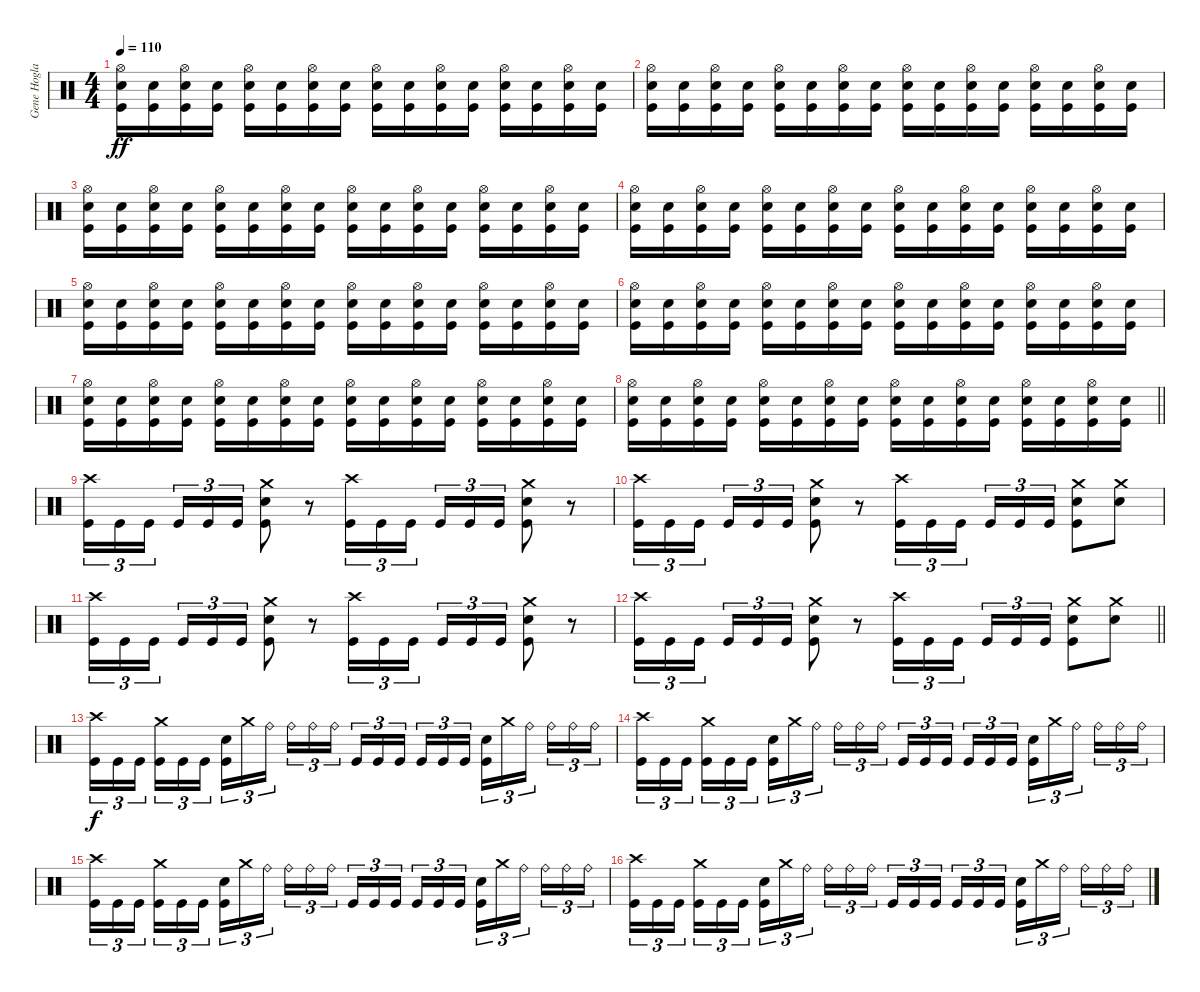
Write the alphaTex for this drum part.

\track ("Gene Hoglan" "Gene Hogla") {instrument percussion}
\staff {score}
\articulation defaults
\ts (4 4)
\section ("" "")
\tempo 110
\clef neutral
\ks c
("Hi-Hat (open)" "Electric Snare (hit)" "Kick (hit)").16{dy ff} ("Electric Snare (hit)" "Kick (hit)").16 ("Hi-Hat (open)" "Electric Snare (hit)" "Kick (hit)").16 ("Electric Snare (hit)" "Kick (hit)").16 ("Hi-Hat (open)" "Electric Snare (hit)" "Kick (hit)").16 ("Electric Snare (hit)" "Kick (hit)").16 ("Hi-Hat (open)" "Electric Snare (hit)" "Kick (hit)").16 ("Electric Snare (hit)" "Kick (hit)").16 ("Hi-Hat (open)" "Electric Snare (hit)" "Kick (hit)").16 ("Electric Snare (hit)" "Kick (hit)").16 ("Hi-Hat (open)" "Electric Snare (hit)" "Kick (hit)").16 ("Electric Snare (hit)" "Kick (hit)").16 ("Hi-Hat (open)" "Electric Snare (hit)" "Kick (hit)").16 ("Electric Snare (hit)" "Kick (hit)").16 ("Hi-Hat (open)" "Electric Snare (hit)" "Kick (hit)").16 ("Electric Snare (hit)" "Kick (hit)").16 |
("Hi-Hat (open)" "Electric Snare (hit)" "Kick (hit)").16 ("Electric Snare (hit)" "Kick (hit)").16 ("Hi-Hat (open)" "Electric Snare (hit)" "Kick (hit)").16 ("Electric Snare (hit)" "Kick (hit)").16 ("Hi-Hat (open)" "Electric Snare (hit)" "Kick (hit)").16 ("Electric Snare (hit)" "Kick (hit)").16 ("Hi-Hat (open)" "Electric Snare (hit)" "Kick (hit)").16 ("Electric Snare (hit)" "Kick (hit)").16 ("Hi-Hat (open)" "Electric Snare (hit)" "Kick (hit)").16 ("Electric Snare (hit)" "Kick (hit)").16 ("Hi-Hat (open)" "Electric Snare (hit)" "Kick (hit)").16 ("Electric Snare (hit)" "Kick (hit)").16 ("Hi-Hat (open)" "Electric Snare (hit)" "Kick (hit)").16 ("Electric Snare (hit)" "Kick (hit)").16 ("Hi-Hat (open)" "Electric Snare (hit)" "Kick (hit)").16 ("Electric Snare (hit)" "Kick (hit)").16 |
("Hi-Hat (open)" "Electric Snare (hit)" "Kick (hit)").16 ("Electric Snare (hit)" "Kick (hit)").16 ("Hi-Hat (open)" "Electric Snare (hit)" "Kick (hit)").16 ("Electric Snare (hit)" "Kick (hit)").16 ("Hi-Hat (open)" "Electric Snare (hit)" "Kick (hit)").16 ("Electric Snare (hit)" "Kick (hit)").16 ("Hi-Hat (open)" "Electric Snare (hit)" "Kick (hit)").16 ("Electric Snare (hit)" "Kick (hit)").16 ("Hi-Hat (open)" "Electric Snare (hit)" "Kick (hit)").16 ("Electric Snare (hit)" "Kick (hit)").16 ("Hi-Hat (open)" "Electric Snare (hit)" "Kick (hit)").16 ("Electric Snare (hit)" "Kick (hit)").16 ("Hi-Hat (open)" "Electric Snare (hit)" "Kick (hit)").16 ("Electric Snare (hit)" "Kick (hit)").16 ("Hi-Hat (open)" "Electric Snare (hit)" "Kick (hit)").16 ("Electric Snare (hit)" "Kick (hit)").16 |
("Hi-Hat (open)" "Electric Snare (hit)" "Kick (hit)").16 ("Electric Snare (hit)" "Kick (hit)").16 ("Hi-Hat (open)" "Electric Snare (hit)" "Kick (hit)").16 ("Electric Snare (hit)" "Kick (hit)").16 ("Hi-Hat (open)" "Electric Snare (hit)" "Kick (hit)").16 ("Electric Snare (hit)" "Kick (hit)").16 ("Hi-Hat (open)" "Electric Snare (hit)" "Kick (hit)").16 ("Electric Snare (hit)" "Kick (hit)").16 ("Hi-Hat (open)" "Electric Snare (hit)" "Kick (hit)").16 ("Electric Snare (hit)" "Kick (hit)").16 ("Hi-Hat (open)" "Electric Snare (hit)" "Kick (hit)").16 ("Electric Snare (hit)" "Kick (hit)").16 ("Hi-Hat (open)" "Electric Snare (hit)" "Kick (hit)").16 ("Electric Snare (hit)" "Kick (hit)").16 ("Hi-Hat (open)" "Electric Snare (hit)" "Kick (hit)").16 ("Electric Snare (hit)" "Kick (hit)").16 |
("Hi-Hat (open)" "Electric Snare (hit)" "Kick (hit)").16 ("Electric Snare (hit)" "Kick (hit)").16 ("Hi-Hat (open)" "Electric Snare (hit)" "Kick (hit)").16 ("Electric Snare (hit)" "Kick (hit)").16 ("Hi-Hat (open)" "Electric Snare (hit)" "Kick (hit)").16 ("Electric Snare (hit)" "Kick (hit)").16 ("Hi-Hat (open)" "Electric Snare (hit)" "Kick (hit)").16 ("Electric Snare (hit)" "Kick (hit)").16 ("Hi-Hat (open)" "Electric Snare (hit)" "Kick (hit)").16 ("Electric Snare (hit)" "Kick (hit)").16 ("Hi-Hat (open)" "Electric Snare (hit)" "Kick (hit)").16 ("Electric Snare (hit)" "Kick (hit)").16 ("Hi-Hat (open)" "Electric Snare (hit)" "Kick (hit)").16 ("Electric Snare (hit)" "Kick (hit)").16 ("Hi-Hat (open)" "Electric Snare (hit)" "Kick (hit)").16 ("Electric Snare (hit)" "Kick (hit)").16 |
("Hi-Hat (open)" "Electric Snare (hit)" "Kick (hit)").16 ("Electric Snare (hit)" "Kick (hit)").16 ("Hi-Hat (open)" "Electric Snare (hit)" "Kick (hit)").16 ("Electric Snare (hit)" "Kick (hit)").16 ("Hi-Hat (open)" "Electric Snare (hit)" "Kick (hit)").16 ("Electric Snare (hit)" "Kick (hit)").16 ("Hi-Hat (open)" "Electric Snare (hit)" "Kick (hit)").16 ("Electric Snare (hit)" "Kick (hit)").16 ("Hi-Hat (open)" "Electric Snare (hit)" "Kick (hit)").16 ("Electric Snare (hit)" "Kick (hit)").16 ("Hi-Hat (open)" "Electric Snare (hit)" "Kick (hit)").16 ("Electric Snare (hit)" "Kick (hit)").16 ("Hi-Hat (open)" "Electric Snare (hit)" "Kick (hit)").16 ("Electric Snare (hit)" "Kick (hit)").16 ("Hi-Hat (open)" "Electric Snare (hit)" "Kick (hit)").16 ("Electric Snare (hit)" "Kick (hit)").16 |
("Hi-Hat (open)" "Electric Snare (hit)" "Kick (hit)").16 ("Electric Snare (hit)" "Kick (hit)").16 ("Hi-Hat (open)" "Electric Snare (hit)" "Kick (hit)").16 ("Electric Snare (hit)" "Kick (hit)").16 ("Hi-Hat (open)" "Electric Snare (hit)" "Kick (hit)").16 ("Electric Snare (hit)" "Kick (hit)").16 ("Hi-Hat (open)" "Electric Snare (hit)" "Kick (hit)").16 ("Electric Snare (hit)" "Kick (hit)").16 ("Hi-Hat (open)" "Electric Snare (hit)" "Kick (hit)").16 ("Electric Snare (hit)" "Kick (hit)").16 ("Hi-Hat (open)" "Electric Snare (hit)" "Kick (hit)").16 ("Electric Snare (hit)" "Kick (hit)").16 ("Hi-Hat (open)" "Electric Snare (hit)" "Kick (hit)").16 ("Electric Snare (hit)" "Kick (hit)").16 ("Hi-Hat (open)" "Electric Snare (hit)" "Kick (hit)").16 ("Electric Snare (hit)" "Kick (hit)").16 |
\barLineRight lightlight
("Hi-Hat (open)" "Electric Snare (hit)" "Kick (hit)").16 ("Electric Snare (hit)" "Kick (hit)").16 ("Hi-Hat (open)" "Electric Snare (hit)" "Kick (hit)").16 ("Electric Snare (hit)" "Kick (hit)").16 ("Hi-Hat (open)" "Electric Snare (hit)" "Kick (hit)").16 ("Electric Snare (hit)" "Kick (hit)").16 ("Hi-Hat (open)" "Electric Snare (hit)" "Kick (hit)").16 ("Electric Snare (hit)" "Kick (hit)").16 ("Hi-Hat (open)" "Electric Snare (hit)" "Kick (hit)").16 ("Electric Snare (hit)" "Kick (hit)").16 ("Hi-Hat (open)" "Electric Snare (hit)" "Kick (hit)").16 ("Electric Snare (hit)" "Kick (hit)").16 ("Hi-Hat (open)" "Electric Snare (hit)" "Kick (hit)").16 ("Electric Snare (hit)" "Kick (hit)").16 ("Hi-Hat (open)" "Electric Snare (hit)" "Kick (hit)").16 ("Electric Snare (hit)" "Kick (hit)").16 |
\section ("" "")
("Crash high (hit)" "Kick (hit)").16{tu (3 2)} "Kick (hit)".16{tu (3 2)} "Kick (hit)".16{tu (3 2) beam splitsecondary} "Kick (hit)".16{tu (3 2)} "Kick (hit)".16{tu (3 2)} "Kick (hit)".16{tu (3 2)} ("Crash medium (hit)" "Electric Snare (hit)" "Kick (hit)").8 r.8 ("Crash high (hit)" "Kick (hit)").16{tu (3 2)} "Kick (hit)".16{tu (3 2)} "Kick (hit)".16{tu (3 2) beam splitsecondary} "Kick (hit)".16{tu (3 2)} "Kick (hit)".16{tu (3 2)} "Kick (hit)".16{tu (3 2)} ("Crash medium (hit)" "Electric Snare (hit)" "Kick (hit)").8 r.8 |
("Crash high (hit)" "Kick (hit)").16{tu (3 2)} "Kick (hit)".16{tu (3 2)} "Kick (hit)".16{tu (3 2) beam splitsecondary} "Kick (hit)".16{tu (3 2)} "Kick (hit)".16{tu (3 2)} "Kick (hit)".16{tu (3 2)} ("Crash medium (hit)" "Electric Snare (hit)" "Kick (hit)").8 r.8 ("Crash high (hit)" "Kick (hit)").16{tu (3 2)} "Kick (hit)".16{tu (3 2)} "Kick (hit)".16{tu (3 2) beam splitsecondary} "Kick (hit)".16{tu (3 2)} "Kick (hit)".16{tu (3 2)} "Kick (hit)".16{tu (3 2)} ("Crash medium (hit)" "Electric Snare (hit)" "Kick (hit)").8 ("Crash medium (hit)" "Electric Snare (hit)").8 |
("Crash high (hit)" "Kick (hit)").16{tu (3 2)} "Kick (hit)".16{tu (3 2)} "Kick (hit)".16{tu (3 2) beam splitsecondary} "Kick (hit)".16{tu (3 2)} "Kick (hit)".16{tu (3 2)} "Kick (hit)".16{tu (3 2)} ("Crash medium (hit)" "Electric Snare (hit)" "Kick (hit)").8 r.8 ("Crash high (hit)" "Kick (hit)").16{tu (3 2)} "Kick (hit)".16{tu (3 2)} "Kick (hit)".16{tu (3 2) beam splitsecondary} "Kick (hit)".16{tu (3 2)} "Kick (hit)".16{tu (3 2)} "Kick (hit)".16{tu (3 2)} ("Crash medium (hit)" "Electric Snare (hit)" "Kick (hit)").8 r.8 |
\barLineRight lightlight
("Crash high (hit)" "Kick (hit)").16{tu (3 2)} "Kick (hit)".16{tu (3 2)} "Kick (hit)".16{tu (3 2) beam splitsecondary} "Kick (hit)".16{tu (3 2)} "Kick (hit)".16{tu (3 2)} "Kick (hit)".16{tu (3 2)} ("Crash medium (hit)" "Electric Snare (hit)" "Kick (hit)").8 r.8 ("Crash high (hit)" "Kick (hit)").16{tu (3 2)} "Kick (hit)".16{tu (3 2)} "Kick (hit)".16{tu (3 2) beam splitsecondary} "Kick (hit)".16{tu (3 2)} "Kick (hit)".16{tu (3 2)} "Kick (hit)".16{tu (3 2)} ("Crash medium (hit)" "Electric Snare (hit)" "Kick (hit)").8 ("Crash medium (hit)" "Electric Snare (hit)").8 |
\section ("" "")
("Crash high (hit)" "Kick (hit)").16{tu (3 2) dy f} "Kick (hit)".16{tu (3 2)} "Kick (hit)".16{tu (3 2) beam splitsecondary} ("Crash medium (hit)" "Kick (hit)").16{tu (3 2)} "Kick (hit)".16{tu (3 2)} "Kick (hit)".16{tu (3 2)} ("Electric Snare (hit)" "Kick (hit)").16{tu (3 2)} "Crash medium (hit)".16{tu (3 2)} "Ride (bell)".16{tu (3 2) beam splitsecondary} "Ride (bell)".16{tu (3 2)} "Ride (bell)".16{tu (3 2)} "Ride (bell)".16{tu (3 2)} "Kick (hit)".16{tu (3 2)} "Kick (hit)".16{tu (3 2)} "Kick (hit)".16{tu (3 2) beam splitsecondary} "Kick (hit)".16{tu (3 2)} "Kick (hit)".16{tu (3 2)} "Kick (hit)".16{tu (3 2)} ("Electric Snare (hit)" "Kick (hit)").16{tu (3 2)} "Crash medium (hit)".16{tu (3 2)} "Ride (bell)".16{tu (3 2) beam splitsecondary} "Ride (bell)".16{tu (3 2)} "Ride (bell)".16{tu (3 2)} "Ride (bell)".16{tu (3 2)} |
("Crash high (hit)" "Kick (hit)").16{tu (3 2)} "Kick (hit)".16{tu (3 2)} "Kick (hit)".16{tu (3 2) beam splitsecondary} ("Crash medium (hit)" "Kick (hit)").16{tu (3 2)} "Kick (hit)".16{tu (3 2)} "Kick (hit)".16{tu (3 2)} ("Electric Snare (hit)" "Kick (hit)").16{tu (3 2)} "Crash medium (hit)".16{tu (3 2)} "Ride (bell)".16{tu (3 2) beam splitsecondary} "Ride (bell)".16{tu (3 2)} "Ride (bell)".16{tu (3 2)} "Ride (bell)".16{tu (3 2)} "Kick (hit)".16{tu (3 2)} "Kick (hit)".16{tu (3 2)} "Kick (hit)".16{tu (3 2) beam splitsecondary} "Kick (hit)".16{tu (3 2)} "Kick (hit)".16{tu (3 2)} "Kick (hit)".16{tu (3 2)} ("Electric Snare (hit)" "Kick (hit)").16{tu (3 2)} "Crash medium (hit)".16{tu (3 2)} "Ride (bell)".16{tu (3 2) beam splitsecondary} "Ride (bell)".16{tu (3 2)} "Ride (bell)".16{tu (3 2)} "Ride (bell)".16{tu (3 2)} |
("Crash high (hit)" "Kick (hit)").16{tu (3 2)} "Kick (hit)".16{tu (3 2)} "Kick (hit)".16{tu (3 2) beam splitsecondary} ("Crash medium (hit)" "Kick (hit)").16{tu (3 2)} "Kick (hit)".16{tu (3 2)} "Kick (hit)".16{tu (3 2)} ("Electric Snare (hit)" "Kick (hit)").16{tu (3 2)} "Crash medium (hit)".16{tu (3 2)} "Ride (bell)".16{tu (3 2) beam splitsecondary} "Ride (bell)".16{tu (3 2)} "Ride (bell)".16{tu (3 2)} "Ride (bell)".16{tu (3 2)} "Kick (hit)".16{tu (3 2)} "Kick (hit)".16{tu (3 2)} "Kick (hit)".16{tu (3 2) beam splitsecondary} "Kick (hit)".16{tu (3 2)} "Kick (hit)".16{tu (3 2)} "Kick (hit)".16{tu (3 2)} ("Electric Snare (hit)" "Kick (hit)").16{tu (3 2)} "Crash medium (hit)".16{tu (3 2)} "Ride (bell)".16{tu (3 2) beam splitsecondary} "Ride (bell)".16{tu (3 2)} "Ride (bell)".16{tu (3 2)} "Ride (bell)".16{tu (3 2)} |
("Crash high (hit)" "Kick (hit)").16{tu (3 2)} "Kick (hit)".16{tu (3 2)} "Kick (hit)".16{tu (3 2) beam splitsecondary} ("Crash medium (hit)" "Kick (hit)").16{tu (3 2)} "Kick (hit)".16{tu (3 2)} "Kick (hit)".16{tu (3 2)} ("Electric Snare (hit)" "Kick (hit)").16{tu (3 2)} "Crash medium (hit)".16{tu (3 2)} "Ride (bell)".16{tu (3 2) beam splitsecondary} "Ride (bell)".16{tu (3 2)} "Ride (bell)".16{tu (3 2)} "Ride (bell)".16{tu (3 2)} "Kick (hit)".16{tu (3 2)} "Kick (hit)".16{tu (3 2)} "Kick (hit)".16{tu (3 2) beam splitsecondary} "Kick (hit)".16{tu (3 2)} "Kick (hit)".16{tu (3 2)} "Kick (hit)".16{tu (3 2)} ("Electric Snare (hit)" "Kick (hit)").16{tu (3 2)} "Crash medium (hit)".16{tu (3 2)} "Ride (bell)".16{tu (3 2) beam splitsecondary} "Ride (bell)".16{tu (3 2)} "Ride (bell)".16{tu (3 2)} "Ride (bell)".16{tu (3 2)}
